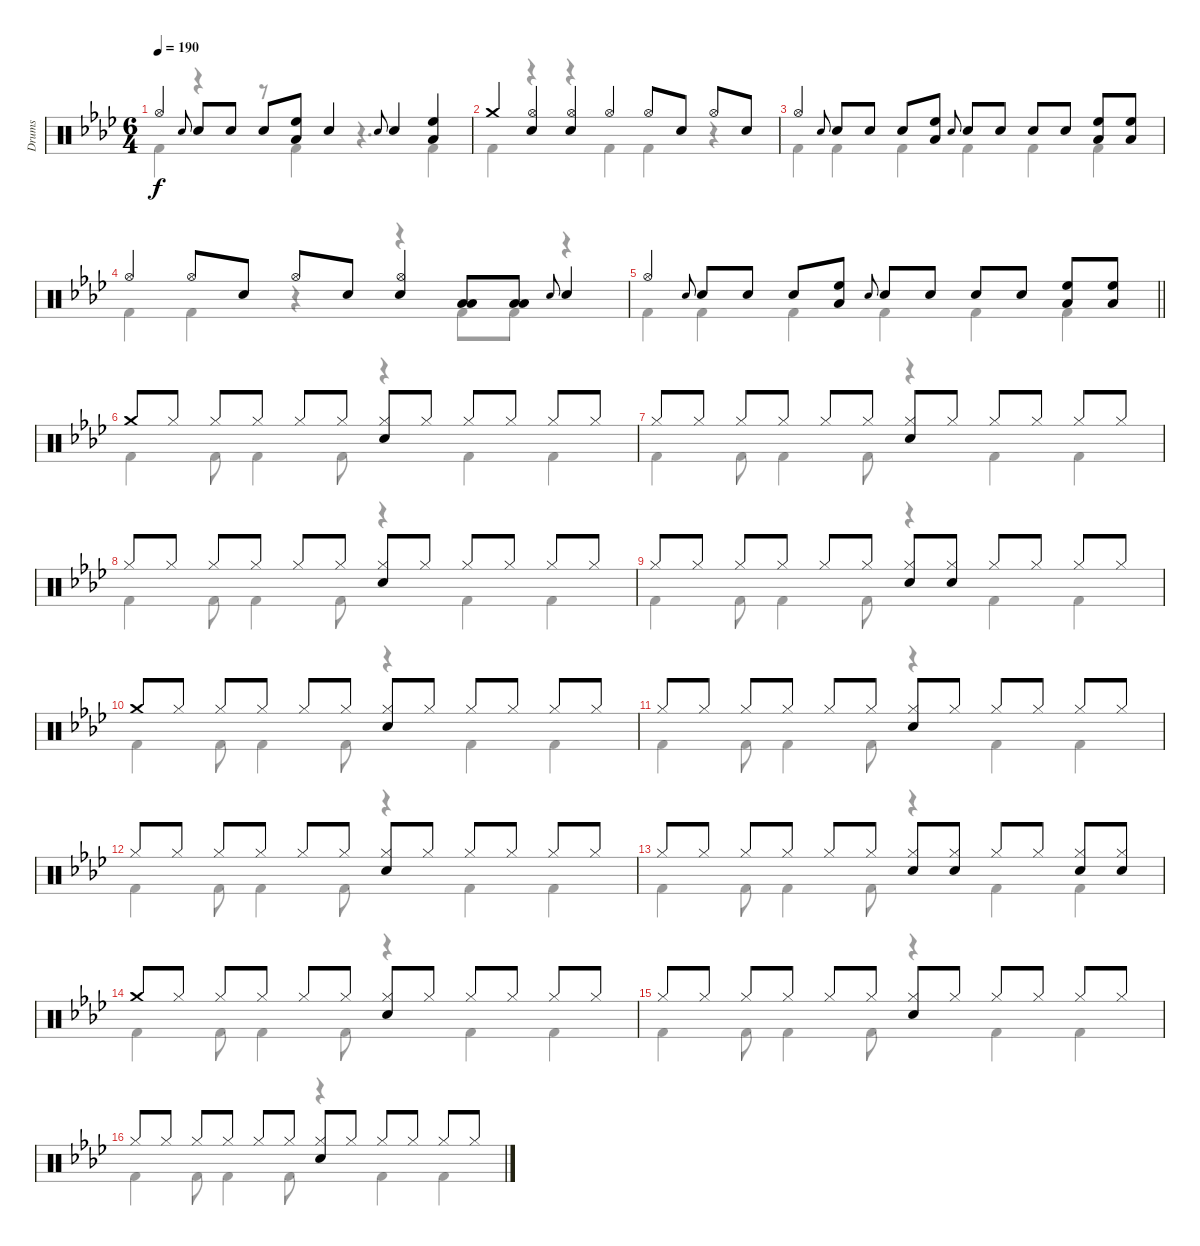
\track ("Drums" "Drums") {instrument percussion}
\staff {score}
\articulation defaults
\voice
\ts (6 4)
\tempo 190
\clef neutral
\ks fminor "Hi-Hat (open)".4{dy f} "Snare (hit) 2".8{gr onbeat} "Snare (hit) 2".8 "Snare (hit) 2".8 "Snare (hit) 2".8
("Low Tom (hit)" "High Floor Tom (hit)").8 "Snare (hit) 2".4 "Snare (hit) 2".8{gr onbeat} "Snare (hit) 2".4 ("Low Tom (hit)" "High Floor Tom (hit)").4 |
"Crash medium (hit)".4 ("Hi-Hat (open)" "Snare (hit) 2").4 ("Hi-Hat (open)" "Snare (hit) 2").4 "Hi-Hat (open)".4 "Hi-Hat (open)".8 "Snare (hit) 2".8 "Hi-Hat (open)".8 "Snare (hit) 2".8 |
"Hi-Hat (open)".4 "Snare (hit) 2".8{gr onbeat} "Snare (hit) 2".8 "Snare (hit) 2".8 "Snare (hit) 2".8 ("Low Tom (hit)" "High Floor Tom (hit)").8 "Snare (hit) 2".8{gr onbeat} "Snare (hit) 2".8 "Snare (hit) 2".8 "Snare (hit) 2".8 "Snare (hit) 2".8 ("Low Tom (hit)" "High Floor Tom (hit)").8 ("Low Tom (hit)" "High Floor Tom (hit)").8 |
"Hi-Hat (open)".4 "Hi-Hat (open)".8 "Snare (hit) 2".8 "Hi-Hat (open)".8 "Snare (hit) 2".8 ("Hi-Hat (open)" "Snare (hit) 2").4 ("Low Tom (hit)" "Low Floor Tom (hit)").8 ("Low Tom (hit)" "Low Floor Tom (hit)").8 "Snare (hit) 2".8{gr onbeat} "Snare (hit) 2".4 |
\barLineRight lightlight "Hi-Hat (open)".4 "Snare (hit) 2".8{gr onbeat} "Snare (hit) 2".8 "Snare (hit) 2".8 "Snare (hit) 2".8
("Low Tom (hit)" "High Floor Tom (hit)").8 "Snare (hit) 2".8{gr onbeat} "Snare (hit) 2".8 "Snare (hit) 2".8 "Snare (hit) 2".8 "Snare (hit) 2".8 ("Low Tom (hit)" "High Floor Tom (hit)").8 ("Low Tom (hit)" "High Floor Tom (hit)").8 |
"Crash medium (hit)".8 "Hi-Hat (closed)".8 "Hi-Hat (closed)".8 "Hi-Hat (closed)".8 "Hi-Hat (closed)".8 "Hi-Hat (closed)".8 ("Hi-Hat (closed)" "Snare (hit) 2").8 "Hi-Hat (closed)".8 "Hi-Hat (closed)".8 "Hi-Hat (closed)".8 "Hi-Hat (closed)".8 "Hi-Hat (closed)".8 |
"Hi-Hat (closed)".8 "Hi-Hat (closed)".8 "Hi-Hat (closed)".8 "Hi-Hat (closed)".8 "Hi-Hat (closed)".8 "Hi-Hat (closed)".8 ("Hi-Hat (closed)" "Snare (hit) 2").8 "Hi-Hat (closed)".8 "Hi-Hat (closed)".8 "Hi-Hat (closed)".8 "Hi-Hat (closed)".8 "Hi-Hat (closed)".8 |
"Hi-Hat (closed)".8 "Hi-Hat (closed)".8 "Hi-Hat (closed)".8 "Hi-Hat (closed)".8 "Hi-Hat (closed)".8 "Hi-Hat (closed)".8 ("Hi-Hat (closed)" "Snare (hit) 2").8 "Hi-Hat (closed)".8 "Hi-Hat (closed)".8 "Hi-Hat (closed)".8 "Hi-Hat (closed)".8 "Hi-Hat (closed)".8 |
"Hi-Hat (closed)".8 "Hi-Hat (closed)".8 "Hi-Hat (closed)".8 "Hi-Hat (closed)".8 "Hi-Hat (closed)".8 "Hi-Hat (closed)".8 ("Hi-Hat (closed)" "Snare (hit) 2").8 ("Hi-Hat (closed)" "Snare (hit) 2").8 "Hi-Hat (closed)".8 "Hi-Hat (closed)".8 "Hi-Hat (closed)".8 "Hi-Hat (closed)".8 |
"Crash medium (hit)".8 "Hi-Hat (closed)".8 "Hi-Hat (closed)".8 "Hi-Hat (closed)".8 "Hi-Hat (closed)".8 "Hi-Hat (closed)".8 ("Hi-Hat (closed)" "Snare (hit) 2").8 "Hi-Hat (closed)".8 "Hi-Hat (closed)".8 "Hi-Hat (closed)".8 "Hi-Hat (closed)".8 "Hi-Hat (closed)".8 |
"Hi-Hat (closed)".8 "Hi-Hat (closed)".8 "Hi-Hat (closed)".8 "Hi-Hat (closed)".8 "Hi-Hat (closed)".8 "Hi-Hat (closed)".8 ("Hi-Hat (closed)" "Snare (hit) 2").8 "Hi-Hat (closed)".8 "Hi-Hat (closed)".8 "Hi-Hat (closed)".8 "Hi-Hat (closed)".8 "Hi-Hat (closed)".8 |
"Hi-Hat (closed)".8 "Hi-Hat (closed)".8 "Hi-Hat (closed)".8 "Hi-Hat (closed)".8 "Hi-Hat (closed)".8 "Hi-Hat (closed)".8 ("Hi-Hat (closed)" "Snare (hit) 2").8 "Hi-Hat (closed)".8 "Hi-Hat (closed)".8 "Hi-Hat (closed)".8 "Hi-Hat (closed)".8 "Hi-Hat (closed)".8 |
"Hi-Hat (closed)".8 "Hi-Hat (closed)".8 "Hi-Hat (closed)".8 "Hi-Hat (closed)".8 "Hi-Hat (closed)".8 "Hi-Hat (closed)".8 ("Hi-Hat (closed)" "Snare (hit) 2").8 ("Hi-Hat (closed)" "Snare (hit) 2").8 "Hi-Hat (closed)".8 "Hi-Hat (closed)".8 ("Hi-Hat (closed)" "Snare (hit) 2").8 ("Hi-Hat (closed)" "Snare (hit) 2").8 |
"Crash medium (hit)".8 "Hi-Hat (closed)".8 "Hi-Hat (closed)".8 "Hi-Hat (closed)".8 "Hi-Hat (closed)".8 "Hi-Hat (closed)".8 ("Hi-Hat (closed)" "Snare (hit) 2").8 "Hi-Hat (closed)".8 "Hi-Hat (closed)".8 "Hi-Hat (closed)".8 "Hi-Hat (closed)".8 "Hi-Hat (closed)".8 |
"Hi-Hat (closed)".8 "Hi-Hat (closed)".8 "Hi-Hat (closed)".8 "Hi-Hat (closed)".8 "Hi-Hat (closed)".8 "Hi-Hat (closed)".8 ("Hi-Hat (closed)" "Snare (hit) 2").8 "Hi-Hat (closed)".8 "Hi-Hat (closed)".8 "Hi-Hat (closed)".8 "Hi-Hat (closed)".8 "Hi-Hat (closed)".8 |
"Hi-Hat (closed)".8 "Hi-Hat (closed)".8 "Hi-Hat (closed)".8 "Hi-Hat (closed)".8 "Hi-Hat (closed)".8 "Hi-Hat (closed)".8 ("Hi-Hat (closed)" "Snare (hit) 2").8 "Hi-Hat (closed)".8 "Hi-Hat (closed)".8 "Hi-Hat (closed)".8 "Hi-Hat (closed)".8 "Hi-Hat (closed)".8
\voice
\clef neutral
\ottava regular
\simile none
\ks fminor "Kick (hit) 2".4{dy f}
r.4 r.8 "Kick (hit) 2".4 r.4{d} "Kick (hit) 2".4 |
"Kick (hit) 2".4 r.4 r.4 "Kick (hit) 2".4 "Kick (hit) 2".4 r.4 |
"Kick (hit) 2".4 "Kick (hit) 2".4 "Kick (hit) 2".4 "Kick (hit) 2".4 "Kick (hit) 2".4 "Kick (hit) 2".4 |
"Kick (hit) 2".4 "Kick (hit) 2".4 r.4 r.4 "Kick (hit) 2".8 "Kick (hit) 2".8 r.4 |
\barLineRight lightlight "Kick (hit) 2".4 "Kick (hit) 2".4 "Kick (hit) 2".4 "Kick (hit) 2".4 "Kick (hit) 2".4 "Kick (hit) 2".4
|
"Kick (hit) 2".4 "Kick (hit) 2".8 "Kick (hit) 2".4 "Kick (hit) 2".8 r.4 "Kick (hit) 2".4 "Kick (hit) 2".4 |
"Kick (hit) 2".4 "Kick (hit) 2".8 "Kick (hit) 2".4 "Kick (hit) 2".8 r.4 "Kick (hit) 2".4 "Kick (hit) 2".4 |
"Kick (hit) 2".4 "Kick (hit) 2".8 "Kick (hit) 2".4 "Kick (hit) 2".8 r.4 "Kick (hit) 2".4 "Kick (hit) 2".4 |
"Kick (hit) 2".4 "Kick (hit) 2".8 "Kick (hit) 2".4 "Kick (hit) 2".8 r.4 "Kick (hit) 2".4 "Kick (hit) 2".4 |
"Kick (hit) 2".4 "Kick (hit) 2".8 "Kick (hit) 2".4 "Kick (hit) 2".8 r.4 "Kick (hit) 2".4 "Kick (hit) 2".4 |
"Kick (hit) 2".4 "Kick (hit) 2".8 "Kick (hit) 2".4 "Kick (hit) 2".8 r.4 "Kick (hit) 2".4 "Kick (hit) 2".4 |
"Kick (hit) 2".4 "Kick (hit) 2".8 "Kick (hit) 2".4 "Kick (hit) 2".8 r.4 "Kick (hit) 2".4 "Kick (hit) 2".4 |
"Kick (hit) 2".4 "Kick (hit) 2".8 "Kick (hit) 2".4 "Kick (hit) 2".8 r.4 "Kick (hit) 2".4 "Kick (hit) 2".4 |
"Kick (hit) 2".4 "Kick (hit) 2".8 "Kick (hit) 2".4 "Kick (hit) 2".8 r.4 "Kick (hit) 2".4 "Kick (hit) 2".4 |
"Kick (hit) 2".4 "Kick (hit) 2".8 "Kick (hit) 2".4 "Kick (hit) 2".8 r.4 "Kick (hit) 2".4 "Kick (hit) 2".4 |
"Kick (hit) 2".4 "Kick (hit) 2".8 "Kick (hit) 2".4 "Kick (hit) 2".8 r.4 "Kick (hit) 2".4 "Kick (hit) 2".4
